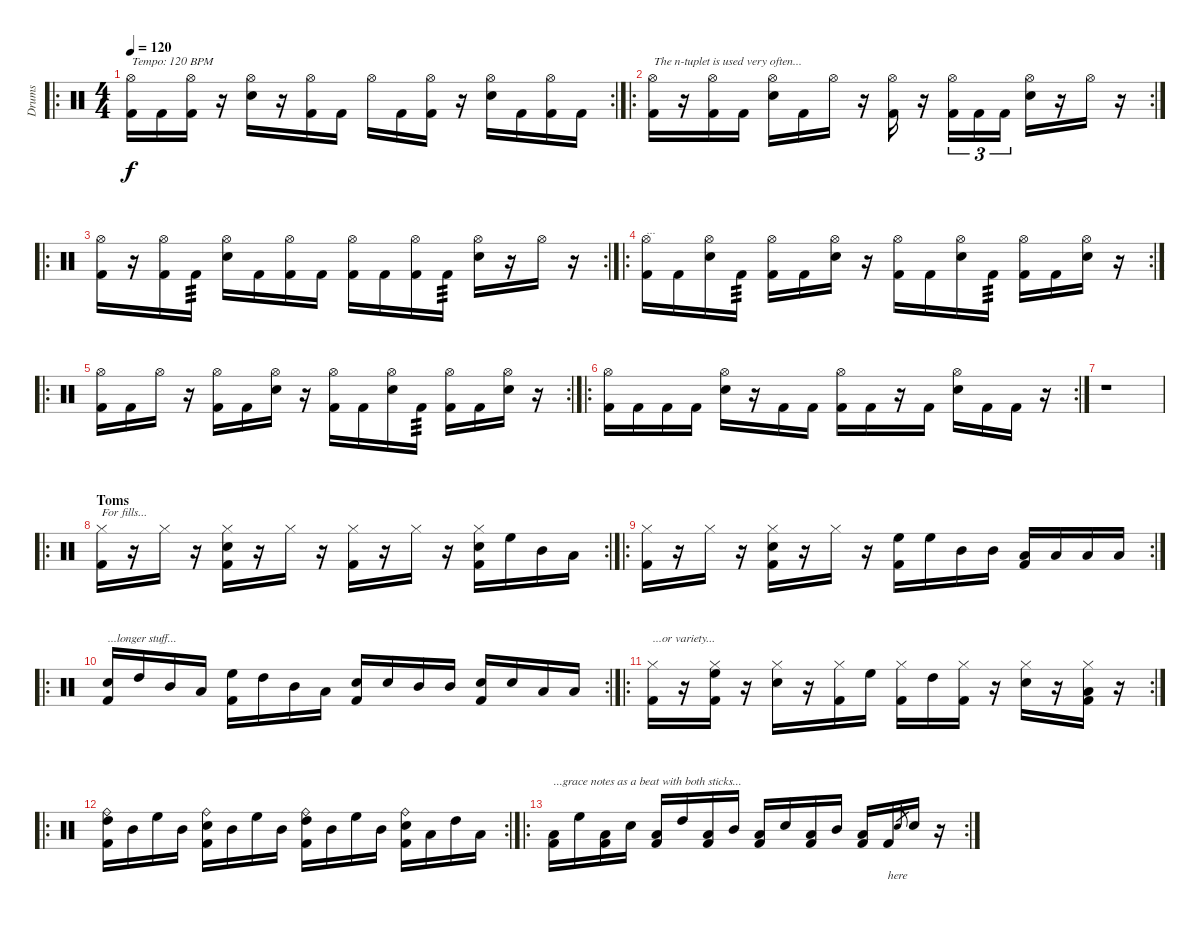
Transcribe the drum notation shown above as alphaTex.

\track ("Drums" "Drums") {instrument percussion}
\staff {score}
\articulation defaults
\ro
\rc 2
\ts (4 4)
\tempo 120
\clef neutral
\ks c
("Hi-Hat (open)" "Kick (hit) 2").16{txt "Tempo: 120 BPM" lyrics (0 "") lyrics (1 "") lyrics (2 "") lyrics (3 "") lyrics (4 "") dy f} "Kick (hit) 2".16{lyrics (0 "") lyrics (1 "") lyrics (2 "") lyrics (3 "") lyrics (4 "")} ("Hi-Hat (open)" "Kick (hit) 2").16{lyrics (0 "") lyrics (1 "") lyrics (2 "") lyrics (3 "") lyrics (4 "")} r.16 ("Hi-Hat (open)" "Electric Snare (hit)").16{lyrics (0 "") lyrics (1 "") lyrics (2 "") lyrics (3 "") lyrics (4 "")} r.16 ("Hi-Hat (open)" "Kick (hit) 2").16{lyrics (0 "") lyrics (1 "") lyrics (2 "") lyrics (3 "") lyrics (4 "")} "Kick (hit) 2".16{lyrics (0 "") lyrics (1 "") lyrics (2 "") lyrics (3 "") lyrics (4 "")} "Hi-Hat (open)".16{lyrics (0 "") lyrics (1 "") lyrics (2 "") lyrics (3 "") lyrics (4 "")} "Kick (hit) 2".16{lyrics (0 "") lyrics (1 "") lyrics (2 "") lyrics (3 "") lyrics (4 "")} ("Hi-Hat (open)" "Kick (hit) 2").16{lyrics (0 "") lyrics (1 "") lyrics (2 "") lyrics (3 "") lyrics (4 "")} r.16 ("Hi-Hat (open)" "Electric Snare (hit)").16{lyrics (0 "") lyrics (1 "") lyrics (2 "") lyrics (3 "") lyrics (4 "")} "Kick (hit) 2".16{lyrics (0 "") lyrics (1 "") lyrics (2 "") lyrics (3 "") lyrics (4 "")} ("Hi-Hat (open)" "Kick (hit) 2").16{lyrics (0 "") lyrics (1 "") lyrics (2 "") lyrics (3 "") lyrics (4 "")} "Kick (hit) 2".16{lyrics (0 "") lyrics (1 "") lyrics (2 "") lyrics (3 "") lyrics (4 "")} |
\ro
\rc 2
("Hi-Hat (open)" "Kick (hit) 2").16{txt "The n-tuplet is used very often..." lyrics (0 "") lyrics (1 "") lyrics (2 "") lyrics (3 "") lyrics (4 "")} r.16 ("Hi-Hat (open)" "Kick (hit) 2").16{lyrics (0 "") lyrics (1 "") lyrics (2 "") lyrics (3 "") lyrics (4 "")} "Kick (hit) 2".16{lyrics (0 "") lyrics (1 "") lyrics (2 "") lyrics (3 "") lyrics (4 "")} ("Hi-Hat (open)" "Electric Snare (hit)").16{lyrics (0 "") lyrics (1 "") lyrics (2 "") lyrics (3 "") lyrics (4 "")} "Kick (hit) 2".16{lyrics (0 "") lyrics (1 "") lyrics (2 "") lyrics (3 "") lyrics (4 "")} "Hi-Hat (open)".16{lyrics (0 "") lyrics (1 "") lyrics (2 "") lyrics (3 "") lyrics (4 "")} r.16 ("Hi-Hat (open)" "Kick (hit) 2").16{lyrics (0 "") lyrics (1 "") lyrics (2 "") lyrics (3 "") lyrics (4 "")} r.16 ("Hi-Hat (open)" "Kick (hit) 2").16{tu (3 2) lyrics (0 "") lyrics (1 "") lyrics (2 "") lyrics (3 "") lyrics (4 "")} "Kick (hit) 2".16{tu (3 2) lyrics (0 "") lyrics (1 "") lyrics (2 "") lyrics (3 "") lyrics (4 "")} "Kick (hit) 2".16{tu (3 2) lyrics (0 "") lyrics (1 "") lyrics (2 "") lyrics (3 "") lyrics (4 "")} ("Hi-Hat (open)" "Electric Snare (hit)").16{lyrics (0 "") lyrics (1 "") lyrics (2 "") lyrics (3 "") lyrics (4 "")} r.16 "Hi-Hat (open)".16{lyrics (0 "") lyrics (1 "") lyrics (2 "") lyrics (3 "") lyrics (4 "")} r.16 |
\ro
\rc 2
("Hi-Hat (open)" "Kick (hit) 2").16{lyrics (0 "") lyrics (1 "") lyrics (2 "") lyrics (3 "") lyrics (4 "")} r.16 ("Hi-Hat (open)" "Kick (hit) 2").16{lyrics (0 "") lyrics (1 "") lyrics (2 "") lyrics (3 "") lyrics (4 "")} "Kick (hit) 2".16{lyrics (0 "") lyrics (1 "") lyrics (2 "") lyrics (3 "") lyrics (4 "") tp 3} ("Hi-Hat (open)" "Electric Snare (hit)").16{lyrics (0 "") lyrics (1 "") lyrics (2 "") lyrics (3 "") lyrics (4 "")} "Kick (hit) 2".16{lyrics (0 "") lyrics (1 "") lyrics (2 "") lyrics (3 "") lyrics (4 "")} ("Hi-Hat (open)" "Kick (hit) 2").16{lyrics (0 "") lyrics (1 "") lyrics (2 "") lyrics (3 "") lyrics (4 "")} "Kick (hit) 2".16{lyrics (0 "") lyrics (1 "") lyrics (2 "") lyrics (3 "") lyrics (4 "")} ("Hi-Hat (open)" "Kick (hit) 2").16{lyrics (0 "") lyrics (1 "") lyrics (2 "") lyrics (3 "") lyrics (4 "")} "Kick (hit) 2".16{lyrics (0 "") lyrics (1 "") lyrics (2 "") lyrics (3 "") lyrics (4 "")} ("Hi-Hat (open)" "Kick (hit) 2").16{lyrics (0 "") lyrics (1 "") lyrics (2 "") lyrics (3 "") lyrics (4 "")} "Kick (hit) 2".16{lyrics (0 "") lyrics (1 "") lyrics (2 "") lyrics (3 "") lyrics (4 "") tp 3} ("Hi-Hat (open)" "Electric Snare (hit)").16{lyrics (0 "") lyrics (1 "") lyrics (2 "") lyrics (3 "") lyrics (4 "")} r.16 "Hi-Hat (open)".16{lyrics (0 "") lyrics (1 "") lyrics (2 "") lyrics (3 "") lyrics (4 "")} r.16 |
\ro
\rc 2
("Hi-Hat (open)" "Kick (hit) 2").16{txt "..." lyrics (0 "") lyrics (1 "") lyrics (2 "") lyrics (3 "") lyrics (4 "")} "Kick (hit) 2".16{lyrics (0 "") lyrics (1 "") lyrics (2 "") lyrics (3 "") lyrics (4 "")} ("Hi-Hat (open)" "Electric Snare (hit)").16{lyrics (0 "") lyrics (1 "") lyrics (2 "") lyrics (3 "") lyrics (4 "")} "Kick (hit) 2".16{lyrics (0 "") lyrics (1 "") lyrics (2 "") lyrics (3 "") lyrics (4 "") tp 3} ("Hi-Hat (open)" "Kick (hit) 2").16{lyrics (0 "") lyrics (1 "") lyrics (2 "") lyrics (3 "") lyrics (4 "")} "Kick (hit) 2".16{lyrics (0 "") lyrics (1 "") lyrics (2 "") lyrics (3 "") lyrics (4 "")} ("Hi-Hat (open)" "Electric Snare (hit)").16{lyrics (0 "") lyrics (1 "") lyrics (2 "") lyrics (3 "") lyrics (4 "")} r.16 ("Hi-Hat (open)" "Kick (hit) 2").16{lyrics (0 "") lyrics (1 "") lyrics (2 "") lyrics (3 "") lyrics (4 "")} "Kick (hit) 2".16{lyrics (0 "") lyrics (1 "") lyrics (2 "") lyrics (3 "") lyrics (4 "")} ("Hi-Hat (open)" "Electric Snare (hit)").16{lyrics (0 "") lyrics (1 "") lyrics (2 "") lyrics (3 "") lyrics (4 "")} "Kick (hit) 2".16{lyrics (0 "") lyrics (1 "") lyrics (2 "") lyrics (3 "") lyrics (4 "") tp 3} ("Hi-Hat (open)" "Kick (hit) 2").16{lyrics (0 "") lyrics (1 "") lyrics (2 "") lyrics (3 "") lyrics (4 "")} "Kick (hit) 2".16{lyrics (0 "") lyrics (1 "") lyrics (2 "") lyrics (3 "") lyrics (4 "")} ("Hi-Hat (open)" "Electric Snare (hit)").16{lyrics (0 "") lyrics (1 "") lyrics (2 "") lyrics (3 "") lyrics (4 "")} r.16 |
\ro
\rc 2
("Hi-Hat (open)" "Kick (hit) 2").16{lyrics (0 "") lyrics (1 "") lyrics (2 "") lyrics (3 "") lyrics (4 "")} "Kick (hit) 2".16{lyrics (0 "") lyrics (1 "") lyrics (2 "") lyrics (3 "") lyrics (4 "")} "Hi-Hat (open)".16{lyrics (0 "") lyrics (1 "") lyrics (2 "") lyrics (3 "") lyrics (4 "")} r.16 ("Hi-Hat (open)" "Kick (hit) 2").16{lyrics (0 "") lyrics (1 "") lyrics (2 "") lyrics (3 "") lyrics (4 "")} "Kick (hit) 2".16{lyrics (0 "") lyrics (1 "") lyrics (2 "") lyrics (3 "") lyrics (4 "")} ("Hi-Hat (open)" "Electric Snare (hit)").16{lyrics (0 "") lyrics (1 "") lyrics (2 "") lyrics (3 "") lyrics (4 "")} r.16 ("Hi-Hat (open)" "Kick (hit) 2").16{lyrics (0 "") lyrics (1 "") lyrics (2 "") lyrics (3 "") lyrics (4 "")} "Kick (hit) 2".16{lyrics (0 "") lyrics (1 "") lyrics (2 "") lyrics (3 "") lyrics (4 "")} ("Hi-Hat (open)" "Electric Snare (hit)").16{lyrics (0 "") lyrics (1 "") lyrics (2 "") lyrics (3 "") lyrics (4 "")} "Kick (hit) 2".16{lyrics (0 "") lyrics (1 "") lyrics (2 "") lyrics (3 "") lyrics (4 "") tp 3} ("Hi-Hat (open)" "Kick (hit) 2").16{lyrics (0 "") lyrics (1 "") lyrics (2 "") lyrics (3 "") lyrics (4 "")} "Kick (hit) 2".16{lyrics (0 "") lyrics (1 "") lyrics (2 "") lyrics (3 "") lyrics (4 "")} ("Hi-Hat (open)" "Electric Snare (hit)").16{lyrics (0 "") lyrics (1 "") lyrics (2 "") lyrics (3 "") lyrics (4 "")} r.16 |
\ro
\rc 2
("Hi-Hat (open)" "Kick (hit) 2").16{lyrics (0 "") lyrics (1 "") lyrics (2 "") lyrics (3 "") lyrics (4 "")} "Kick (hit) 2".16{lyrics (0 "") lyrics (1 "") lyrics (2 "") lyrics (3 "") lyrics (4 "")} "Kick (hit) 2".16{lyrics (0 "") lyrics (1 "") lyrics (2 "") lyrics (3 "") lyrics (4 "")} "Kick (hit) 2".16{lyrics (0 "") lyrics (1 "") lyrics (2 "") lyrics (3 "") lyrics (4 "")} ("Hi-Hat (open)" "Electric Snare (hit)").16{lyrics (0 "") lyrics (1 "") lyrics (2 "") lyrics (3 "") lyrics (4 "")} r.16 "Kick (hit) 2".16{lyrics (0 "") lyrics (1 "") lyrics (2 "") lyrics (3 "") lyrics (4 "")} "Kick (hit) 2".16{lyrics (0 "") lyrics (1 "") lyrics (2 "") lyrics (3 "") lyrics (4 "")} ("Hi-Hat (open)" "Kick (hit) 2").16{lyrics (0 "") lyrics (1 "") lyrics (2 "") lyrics (3 "") lyrics (4 "")} "Kick (hit) 2".16{lyrics (0 "") lyrics (1 "") lyrics (2 "") lyrics (3 "") lyrics (4 "")} r.16 "Kick (hit) 2".16{lyrics (0 "") lyrics (1 "") lyrics (2 "") lyrics (3 "") lyrics (4 "")} ("Hi-Hat (open)" "Electric Snare (hit)").16{lyrics (0 "") lyrics (1 "") lyrics (2 "") lyrics (3 "") lyrics (4 "")} "Kick (hit) 2".16{lyrics (0 "") lyrics (1 "") lyrics (2 "") lyrics (3 "") lyrics (4 "")} "Kick (hit) 2".16{lyrics (0 "") lyrics (1 "") lyrics (2 "") lyrics (3 "") lyrics (4 "")} r.16 |
r.1 |
\ro
\rc 2
\section ("" "Toms")
("Hi-Hat (closed)" "Kick (hit) 2").16{txt "For fills..." lyrics (0 "") lyrics (1 "") lyrics (2 "") lyrics (3 "") lyrics (4 "")} r.16 "Hi-Hat (closed)".16{lyrics (0 "") lyrics (1 "") lyrics (2 "") lyrics (3 "") lyrics (4 "")} r.16 ("Hi-Hat (closed)" "Electric Snare (hit)" "Kick (hit) 2").16{lyrics (0 "") lyrics (1 "") lyrics (2 "") lyrics (3 "") lyrics (4 "")} r.16 "Hi-Hat (closed)".16{lyrics (0 "") lyrics (1 "") lyrics (2 "") lyrics (3 "") lyrics (4 "")} r.16 ("Hi-Hat (closed)" "Kick (hit) 2").16{lyrics (0 "") lyrics (1 "") lyrics (2 "") lyrics (3 "") lyrics (4 "")} r.16 "Hi-Hat (closed)".16{lyrics (0 "") lyrics (1 "") lyrics (2 "") lyrics (3 "") lyrics (4 "")} r.16 ("Hi-Hat (closed)" "Electric Snare (hit)" "Kick (hit) 2").16{lyrics (0 "") lyrics (1 "") lyrics (2 "") lyrics (3 "") lyrics (4 "")} "High Floor Tom (hit)".16{lyrics (0 "") lyrics (1 "") lyrics (2 "") lyrics (3 "") lyrics (4 "")} "Mid Tom (hit)".16{lyrics (0 "") lyrics (1 "") lyrics (2 "") lyrics (3 "") lyrics (4 "")} "Low Tom (hit)".16{lyrics (0 "") lyrics (1 "") lyrics (2 "") lyrics (3 "") lyrics (4 "")} |
\ro
\rc 2
("Hi-Hat (closed)" "Kick (hit) 2").16{lyrics (0 "") lyrics (1 "") lyrics (2 "") lyrics (3 "") lyrics (4 "")} r.16 "Hi-Hat (closed)".16{lyrics (0 "") lyrics (1 "") lyrics (2 "") lyrics (3 "") lyrics (4 "")} r.16 ("Hi-Hat (closed)" "Electric Snare (hit)" "Kick (hit) 2").16{lyrics (0 "") lyrics (1 "") lyrics (2 "") lyrics (3 "") lyrics (4 "")} r.16 "Hi-Hat (closed)".16{lyrics (0 "") lyrics (1 "") lyrics (2 "") lyrics (3 "") lyrics (4 "")} r.16 ("High Floor Tom (hit)" "Kick (hit) 2").16{lyrics (0 "") lyrics (1 "") lyrics (2 "") lyrics (3 "") lyrics (4 "")} "High Floor Tom (hit)".16{lyrics (0 "") lyrics (1 "") lyrics (2 "") lyrics (3 "") lyrics (4 "")} "Mid Tom (hit)".16{lyrics (0 "") lyrics (1 "") lyrics (2 "") lyrics (3 "") lyrics (4 "")} "Mid Tom (hit)".16{lyrics (0 "") lyrics (1 "") lyrics (2 "") lyrics (3 "") lyrics (4 "")} ("Low Tom (hit)" "Kick (hit) 2").16{lyrics (0 "") lyrics (1 "") lyrics (2 "") lyrics (3 "") lyrics (4 "")} "Low Tom (hit)".16{lyrics (0 "") lyrics (1 "") lyrics (2 "") lyrics (3 "") lyrics (4 "")} "Low Floor Tom (hit)".16{lyrics (0 "") lyrics (1 "") lyrics (2 "") lyrics (3 "") lyrics (4 "")} "Low Floor Tom (hit)".16{lyrics (0 "") lyrics (1 "") lyrics (2 "") lyrics (3 "") lyrics (4 "")} |
\ro
\rc 2
("Electric Snare (hit)" "Kick (hit) 2").16{txt "...longer stuff..." lyrics (0 "") lyrics (1 "") lyrics (2 "") lyrics (3 "") lyrics (4 "")} "High Tom (hit)".16{lyrics (0 "") lyrics (1 "") lyrics (2 "") lyrics (3 "") lyrics (4 "")} "Mid Tom (hit)".16{lyrics (0 "") lyrics (1 "") lyrics (2 "") lyrics (3 "") lyrics (4 "")} "Low Tom (hit)".16{lyrics (0 "") lyrics (1 "") lyrics (2 "") lyrics (3 "") lyrics (4 "")} ("High Floor Tom (hit)" "Kick (hit) 2").16{lyrics (0 "") lyrics (1 "") lyrics (2 "") lyrics (3 "") lyrics (4 "")} "High Tom (hit)".16{lyrics (0 "") lyrics (1 "") lyrics (2 "") lyrics (3 "") lyrics (4 "")} "Mid Tom (hit)".16{lyrics (0 "") lyrics (1 "") lyrics (2 "") lyrics (3 "") lyrics (4 "")} "Low Tom (hit)".16{lyrics (0 "") lyrics (1 "") lyrics (2 "") lyrics (3 "") lyrics (4 "")} ("Electric Snare (hit)" "Kick (hit) 2").16{lyrics (0 "") lyrics (1 "") lyrics (2 "") lyrics (3 "") lyrics (4 "")} "Electric Snare (hit)".16{lyrics (0 "") lyrics (1 "") lyrics (2 "") lyrics (3 "") lyrics (4 "")} "Mid Tom (hit)".16{lyrics (0 "") lyrics (1 "") lyrics (2 "") lyrics (3 "") lyrics (4 "")} "Mid Tom (hit)".16{lyrics (0 "") lyrics (1 "") lyrics (2 "") lyrics (3 "") lyrics (4 "")} ("Electric Snare (hit)" "Kick (hit) 2").16{lyrics (0 "") lyrics (1 "") lyrics (2 "") lyrics (3 "") lyrics (4 "")} "Electric Snare (hit)".16{lyrics (0 "") lyrics (1 "") lyrics (2 "") lyrics (3 "") lyrics (4 "")} "Low Tom (hit)".16{lyrics (0 "") lyrics (1 "") lyrics (2 "") lyrics (3 "") lyrics (4 "")} "Low Floor Tom (hit)".16{lyrics (0 "") lyrics (1 "") lyrics (2 "") lyrics (3 "") lyrics (4 "")} |
\ro
\rc 2
("Hi-Hat (closed)" "Kick (hit) 2").16{txt "...or variety..." lyrics (0 "") lyrics (1 "") lyrics (2 "") lyrics (3 "") lyrics (4 "")} r.16 ("Hi-Hat (closed)" "High Floor Tom (hit)" "Kick (hit) 2").16{lyrics (0 "") lyrics (1 "") lyrics (2 "") lyrics (3 "") lyrics (4 "")} r.16 ("Hi-Hat (closed)" "Electric Snare (hit)").16{lyrics (0 "") lyrics (1 "") lyrics (2 "") lyrics (3 "") lyrics (4 "")} r.16 ("Hi-Hat (closed)" "Kick (hit) 2").16{lyrics (0 "") lyrics (1 "") lyrics (2 "") lyrics (3 "") lyrics (4 "")} "High Floor Tom (hit)".16{lyrics (0 "") lyrics (1 "") lyrics (2 "") lyrics (3 "") lyrics (4 "")} ("Hi-Hat (closed)" "Kick (hit) 2").16{lyrics (0 "") lyrics (1 "") lyrics (2 "") lyrics (3 "") lyrics (4 "")} "High Tom (hit)".16{lyrics (0 "") lyrics (1 "") lyrics (2 "") lyrics (3 "") lyrics (4 "")} ("Hi-Hat (closed)" "Kick (hit) 2").16{lyrics (0 "") lyrics (1 "") lyrics (2 "") lyrics (3 "") lyrics (4 "")} r.16 ("Hi-Hat (closed)" "Electric Snare (hit)").16{lyrics (0 "") lyrics (1 "") lyrics (2 "") lyrics (3 "") lyrics (4 "")} r.16 ("Hi-Hat (closed)" "Low Floor Tom (hit)" "Kick (hit) 2").16{lyrics (0 "") lyrics (1 "") lyrics (2 "") lyrics (3 "") lyrics (4 "")} r.16 |
\ro
\rc 2
("Ride (bell)" "High Tom (hit)" "Kick (hit) 2").16{lyrics (0 "") lyrics (1 "") lyrics (2 "") lyrics (3 "") lyrics (4 "")} "Mid Tom (hit)".16{lyrics (0 "") lyrics (1 "") lyrics (2 "") lyrics (3 "") lyrics (4 "")} "High Floor Tom (hit)".16{lyrics (0 "") lyrics (1 "") lyrics (2 "") lyrics (3 "") lyrics (4 "")} "Mid Tom (hit)".16{lyrics (0 "") lyrics (1 "") lyrics (2 "") lyrics (3 "") lyrics (4 "")} ("Ride (bell)" "Electric Snare (hit)" "Kick (hit) 2").16{lyrics (0 "") lyrics (1 "") lyrics (2 "") lyrics (3 "") lyrics (4 "")} "Mid Tom (hit)".16{lyrics (0 "") lyrics (1 "") lyrics (2 "") lyrics (3 "") lyrics (4 "")} "High Floor Tom (hit)".16{lyrics (0 "") lyrics (1 "") lyrics (2 "") lyrics (3 "") lyrics (4 "")} "Mid Tom (hit)".16{lyrics (0 "") lyrics (1 "") lyrics (2 "") lyrics (3 "") lyrics (4 "")} ("Ride (bell)" "High Tom (hit)" "Kick (hit) 2").16{lyrics (0 "") lyrics (1 "") lyrics (2 "") lyrics (3 "") lyrics (4 "")} "Mid Tom (hit)".16{lyrics (0 "") lyrics (1 "") lyrics (2 "") lyrics (3 "") lyrics (4 "")} "High Floor Tom (hit)".16{lyrics (0 "") lyrics (1 "") lyrics (2 "") lyrics (3 "") lyrics (4 "")} "Mid Tom (hit)".16{lyrics (0 "") lyrics (1 "") lyrics (2 "") lyrics (3 "") lyrics (4 "")} ("Ride (bell)" "Electric Snare (hit)" "Kick (hit) 2").16{lyrics (0 "") lyrics (1 "") lyrics (2 "") lyrics (3 "") lyrics (4 "")} "Low Tom (hit)".16{lyrics (0 "") lyrics (1 "") lyrics (2 "") lyrics (3 "") lyrics (4 "")} "High Tom (hit)".16{lyrics (0 "") lyrics (1 "") lyrics (2 "") lyrics (3 "") lyrics (4 "")} "Low Floor Tom (hit)".16{lyrics (0 "") lyrics (1 "") lyrics (2 "") lyrics (3 "") lyrics (4 "")} |
\ro
\rc 2
("Low Tom (hit)" "Kick (hit) 2").16{txt "...grace notes as a beat with both sticks..." lyrics (0 "") lyrics (1 "") lyrics (2 "") lyrics (3 "") lyrics (4 "")} "High Floor Tom (hit)".16{lyrics (0 "") lyrics (1 "") lyrics (2 "") lyrics (3 "") lyrics (4 "")} ("Low Floor Tom (hit)" "Kick (hit) 2").16{lyrics (0 "") lyrics (1 "") lyrics (2 "") lyrics (3 "") lyrics (4 "")} "Electric Snare (hit)".16{lyrics (0 "") lyrics (1 "") lyrics (2 "") lyrics (3 "") lyrics (4 "")} ("Low Floor Tom (hit)" "Kick (hit) 2").16{lyrics (0 "") lyrics (1 "") lyrics (2 "") lyrics (3 "") lyrics (4 "")} "High Tom (hit)".16{lyrics (0 "") lyrics (1 "") lyrics (2 "") lyrics (3 "") lyrics (4 "")} ("Low Floor Tom (hit)" "Kick (hit) 2").16{lyrics (0 "") lyrics (1 "") lyrics (2 "") lyrics (3 "") lyrics (4 "")} "Mid Tom (hit)".16{lyrics (0 "") lyrics (1 "") lyrics (2 "") lyrics (3 "") lyrics (4 "")} ("Low Floor Tom (hit)" "Kick (hit) 2").16{lyrics (0 "") lyrics (1 "") lyrics (2 "") lyrics (3 "") lyrics (4 "")} "Electric Snare (hit)".16{lyrics (0 "") lyrics (1 "") lyrics (2 "") lyrics (3 "") lyrics (4 "")} ("Low Floor Tom (hit)" "Kick (hit) 2").16{lyrics (0 "") lyrics (1 "") lyrics (2 "") lyrics (3 "") lyrics (4 "")} "Mid Tom (hit)".16{lyrics (0 "") lyrics (1 "") lyrics (2 "") lyrics (3 "") lyrics (4 "")} ("Low Floor Tom (hit)" "Kick (hit) 2").16{lyrics (0 "") lyrics (1 "") lyrics (2 "") lyrics (3 "") lyrics (4 "")} "Kick (hit) 2".16{lyrics (0 "") lyrics (1 "") lyrics (2 "") lyrics (3 "") lyrics (4 "")} "Electric Snare (hit)".8{lyrics (0 "here") lyrics (1 "") lyrics (2 "") lyrics (3 "") lyrics (4 "") gr} "Electric Snare (hit)".16 r.16
